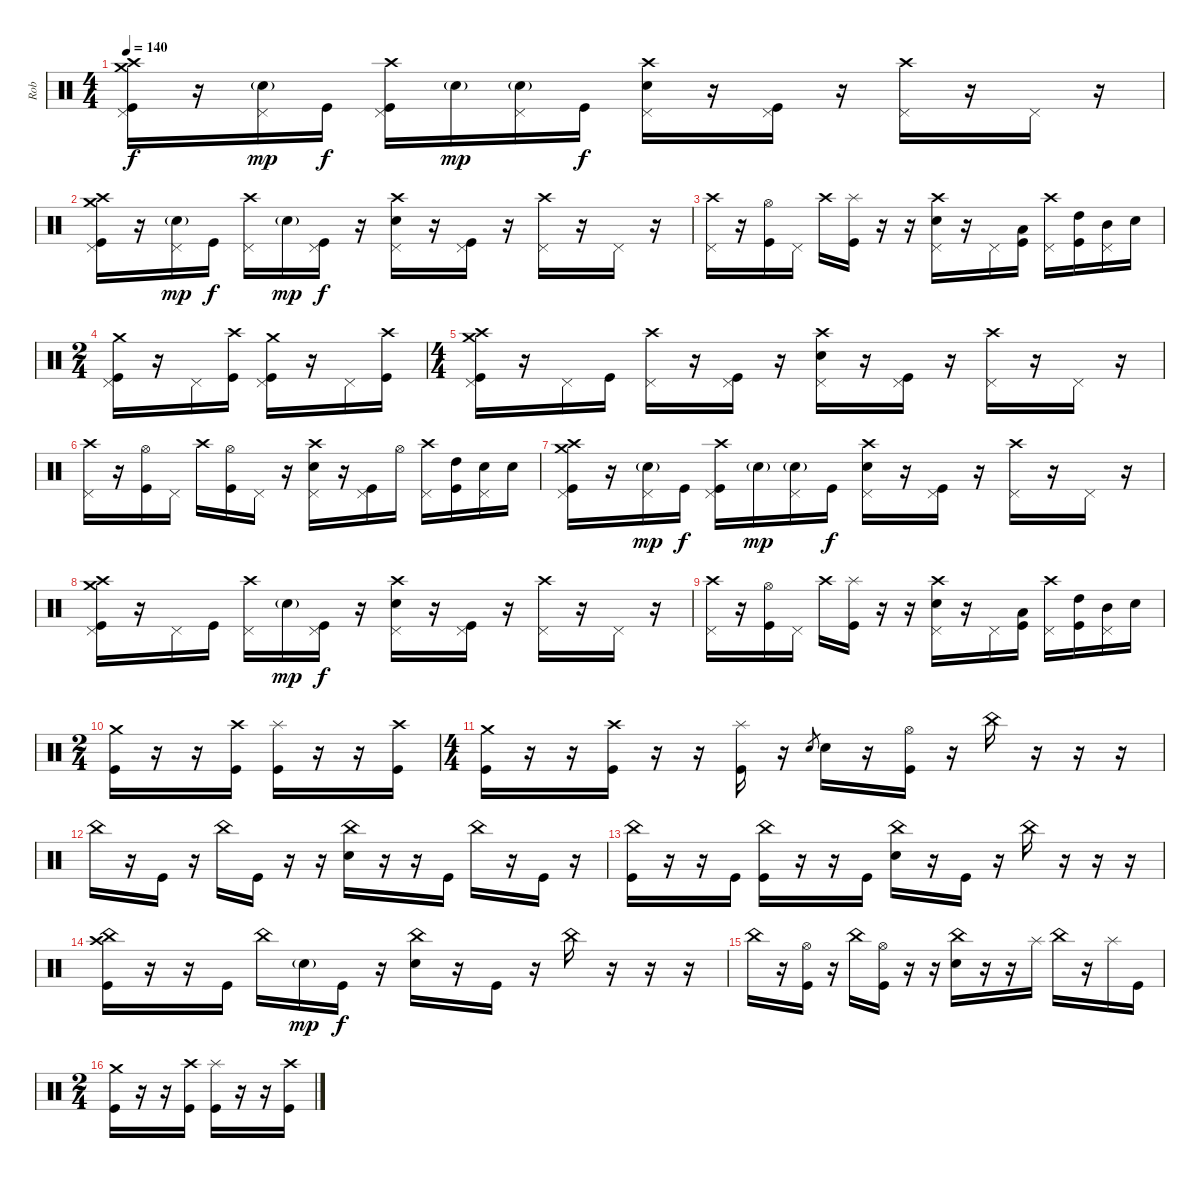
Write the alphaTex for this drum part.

\track ("Rob" "Rob") {instrument percussion}
\staff {score}
\articulation defaults
\ts (4 4)
\tempo 140
\clef neutral
\ks c
("Crash medium (hit)" "Crash high (hit)" "Pedal Hi-Hat (hit)" "Kick (hit)").16{dy f} r.16 ("Electric Snare (hit)"{g} "Pedal Hi-Hat (hit)").16{dy mp} "Kick (hit)".16{dy f} ("Crash high (hit)" "Pedal Hi-Hat (hit)" "Kick (hit)").16 "Electric Snare (hit)"{g}.16{dy mp} ("Electric Snare (hit)"{g} "Pedal Hi-Hat (hit)").16 "Kick (hit)".16{dy f} ("Electric Snare (hit)" "Crash high (hit)" "Pedal Hi-Hat (hit)").16 r.16 ("Pedal Hi-Hat (hit)" "Kick (hit)").16 r.16 ("Crash high (hit)" "Pedal Hi-Hat (hit)").16 r.16 "Pedal Hi-Hat (hit)".16 r.16 |
("Crash medium (hit)" "Crash high (hit)" "Pedal Hi-Hat (hit)" "Kick (hit)").16 r.16 ("Electric Snare (hit)"{g} "Pedal Hi-Hat (hit)").16{dy mp} "Kick (hit)".16{dy f} ("Crash high (hit)" "Pedal Hi-Hat (hit)").16 "Electric Snare (hit)"{g}.16{dy mp} ("Pedal Hi-Hat (hit)" "Kick (hit)").16{dy f} r.16 ("Electric Snare (hit)" "Crash high (hit)" "Pedal Hi-Hat (hit)").16 r.16 ("Pedal Hi-Hat (hit)" "Kick (hit)").16 r.16 ("Crash high (hit)" "Pedal Hi-Hat (hit)").16 r.16 "Pedal Hi-Hat (hit)".16 r.16 |
("Crash high (hit)" "Pedal Hi-Hat (hit)").16 r.16 ("Hi-Hat (open)" "Kick (hit)").16 "Pedal Hi-Hat (hit)".16 "Crash high (hit)".16 ("Splash (hit)" "Kick (hit)").16 r.16 r.16 ("Electric Snare (hit)" "Crash high (hit)" "Pedal Hi-Hat (hit)").16 r.16 "Pedal Hi-Hat (hit)".16 ("Low Tom (hit)" "Kick (hit)").16 ("Crash high (hit)" "Pedal Hi-Hat (hit)").16 ("High Tom (hit)" "Kick (hit)").16 ("Mid Tom (hit)" "Pedal Hi-Hat (hit)").16 "Electric Snare (hit)".16 |
\ts (2 4)
("Crash medium (hit)" "Pedal Hi-Hat (hit)" "Kick (hit)").16 r.16 "Pedal Hi-Hat (hit)".16 ("Crash high (hit)" "Kick (hit)").16 ("Crash medium (hit)" "Pedal Hi-Hat (hit)" "Kick (hit)").16 r.16 "Pedal Hi-Hat (hit)".16 ("Crash high (hit)" "Kick (hit)").16 |
\ts (4 4)
("Crash medium (hit)" "Crash high (hit)" "Pedal Hi-Hat (hit)" "Kick (hit)").16 r.16 "Pedal Hi-Hat (hit)".16 "Kick (hit)".16 ("Crash high (hit)" "Pedal Hi-Hat (hit)").16 r.16 ("Pedal Hi-Hat (hit)" "Kick (hit)").16 r.16 ("Electric Snare (hit)" "Crash high (hit)" "Pedal Hi-Hat (hit)").16 r.16 ("Pedal Hi-Hat (hit)" "Kick (hit)").16 r.16 ("Crash high (hit)" "Pedal Hi-Hat (hit)").16 r.16 "Pedal Hi-Hat (hit)".16 r.16 |
("Crash high (hit)" "Pedal Hi-Hat (hit)").16 r.16 ("Hi-Hat (open)" "Kick (hit)").16 "Pedal Hi-Hat (hit)".16 "Crash high (hit)".16 ("Hi-Hat (open)" "Kick (hit)").16 "Pedal Hi-Hat (hit)".16 r.16 ("Electric Snare (hit)" "Crash high (hit)" "Pedal Hi-Hat (hit)").16 r.16 ("Pedal Hi-Hat (hit)" "Kick (hit)").16 "Hi-Hat (open)".16 ("Crash high (hit)" "Pedal Hi-Hat (hit)").16 ("High Tom (hit)" "Kick (hit)").16 ("Electric Snare (hit)" "Pedal Hi-Hat (hit)").16 "Electric Snare (hit)".16 |
("Crash medium (hit)" "Crash high (hit)" "Pedal Hi-Hat (hit)" "Kick (hit)").16 r.16 ("Electric Snare (hit)"{g} "Pedal Hi-Hat (hit)").16{dy mp} "Kick (hit)".16{dy f} ("Crash high (hit)" "Pedal Hi-Hat (hit)" "Kick (hit)").16 "Electric Snare (hit)"{g}.16{dy mp} ("Electric Snare (hit)"{g} "Pedal Hi-Hat (hit)").16 "Kick (hit)".16{dy f} ("Electric Snare (hit)" "Crash high (hit)" "Pedal Hi-Hat (hit)").16 r.16 ("Pedal Hi-Hat (hit)" "Kick (hit)").16 r.16 ("Crash high (hit)" "Pedal Hi-Hat (hit)").16 r.16 "Pedal Hi-Hat (hit)".16 r.16 |
("Crash medium (hit)" "Crash high (hit)" "Pedal Hi-Hat (hit)" "Kick (hit)").16 r.16 "Pedal Hi-Hat (hit)".16 "Kick (hit)".16 ("Crash high (hit)" "Pedal Hi-Hat (hit)").16 "Electric Snare (hit)"{g}.16{dy mp} ("Pedal Hi-Hat (hit)" "Kick (hit)").16{dy f} r.16 ("Electric Snare (hit)" "Crash high (hit)" "Pedal Hi-Hat (hit)").16 r.16 ("Pedal Hi-Hat (hit)" "Kick (hit)").16 r.16 ("Crash high (hit)" "Pedal Hi-Hat (hit)").16 r.16 "Pedal Hi-Hat (hit)".16 r.16 |
("Crash high (hit)" "Pedal Hi-Hat (hit)").16 r.16 ("Hi-Hat (open)" "Kick (hit)").16 "Pedal Hi-Hat (hit)".16 "Crash high (hit)".16 ("Splash (hit)" "Kick (hit)").16 r.16 r.16 ("Electric Snare (hit)" "Crash high (hit)" "Pedal Hi-Hat (hit)").16 r.16 "Pedal Hi-Hat (hit)".16 ("Low Tom (hit)" "Kick (hit)").16 ("Crash high (hit)" "Pedal Hi-Hat (hit)").16 ("High Tom (hit)" "Kick (hit)").16 ("Mid Tom (hit)" "Pedal Hi-Hat (hit)").16 "Electric Snare (hit)".16 |
\ts (2 4)
("Crash medium (hit)" "Kick (hit)").16 r.16 r.16 ("Crash high (hit)" "Kick (hit)").16 ("Splash (hit)" "Kick (hit)").16 r.16 r.16 ("Crash high (hit)" "Kick (hit)").16 |
\ts (4 4)
("Crash medium (hit)" "Kick (hit)").16 r.16 r.16 ("Crash high (hit)" "Kick (hit)").16 r.16 r.16 ("Splash (hit)" "Kick (hit)").16 r.16 "Electric Snare (hit)".8{gr} "Electric Snare (hit)".16 r.16 ("Hi-Hat (open)" "Kick (hit)").16 r.16 "China (hit)".16 r.16 r.16 r.16 |
"China (hit)".16 r.16 "Kick (hit)".16 r.16 "China (hit)".16 "Kick (hit)".16 r.16 r.16 ("Electric Snare (hit)" "China (hit)").16 r.16 r.16 "Kick (hit)".16 "China (hit)".16 r.16 "Kick (hit)".16 r.16 |
("China (hit)" "Kick (hit)").16 r.16 r.16 "Kick (hit)".16 ("China (hit)" "Kick (hit)").16 r.16 r.16 "Kick (hit)".16 ("Electric Snare (hit)" "China (hit)").16 r.16 "Kick (hit)".16 r.16 "China (hit)".16 r.16 r.16 r.16 |
("Crash high (hit)" "China (hit)" "Kick (hit)").16 r.16 r.16 "Kick (hit)".16 "China (hit)".16 "Electric Snare (hit)"{g}.16{dy mp} "Kick (hit)".16{dy f} r.16 ("Electric Snare (hit)" "China (hit)").16 r.16 "Kick (hit)".16 r.16 "China (hit)".16 r.16 r.16 r.16 |
"China (hit)".16 r.16 ("Hi-Hat (open)" "Kick (hit)").16 r.16 "China (hit)".16 ("Hi-Hat (open)" "Kick (hit)").16 r.16 r.16 ("Electric Snare (hit)" "China (hit)").16 r.16 r.16 "Splash (hit)".16 "China (hit)".16 r.16 "Splash (hit)".16 "Kick (hit)".16 |
\ts (2 4)
("Crash medium (hit)" "Kick (hit)").16 r.16 r.16 ("Crash high (hit)" "Kick (hit)").16 ("Splash (hit)" "Kick (hit)").16 r.16 r.16 ("Crash high (hit)" "Kick (hit)").16
